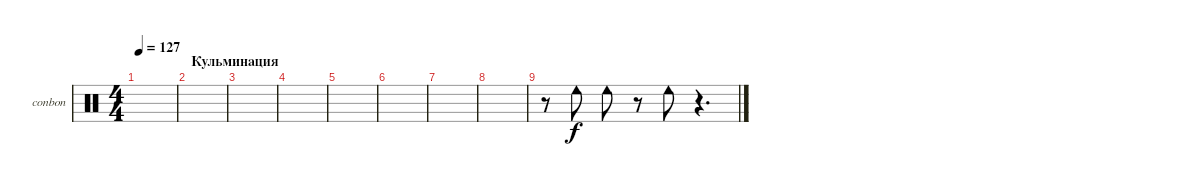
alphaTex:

\defaultSystemsLayout 4
\bracketExtendMode groupsimilarinstruments
\firstSystemTrackNameOrientation horizontal
\otherSystemsTrackNameOrientation horizontal
\track ("подстук" "conbon") {instrument percussion}
\staff {score}
\articulation defaults
\ts (4 4)
\tempo 127
\clef neutral
\scale
0.333333
\ks c
|
\section ("" "Кульминация")
\scale
0.333333 |
\scale
0.333333 |
\scale
0.333333 |
\scale
0.333333 |
\scale
0.333333 |
\scale
0.333333 |
\scale
0.333333 |
\scale
0.333333 r.8 "Cowbell low (hit)".8 "Cowbell low (hit)".8 r.8 "Cowbell low (hit)".8 r.4{d} |
\scale
0.333333 |
\scale
0.333333 |
\scale
0.333333 |
\scale
0.333333 |
\scale
0.333333 |
\scale
0.333333 |
\scale
0.333333
